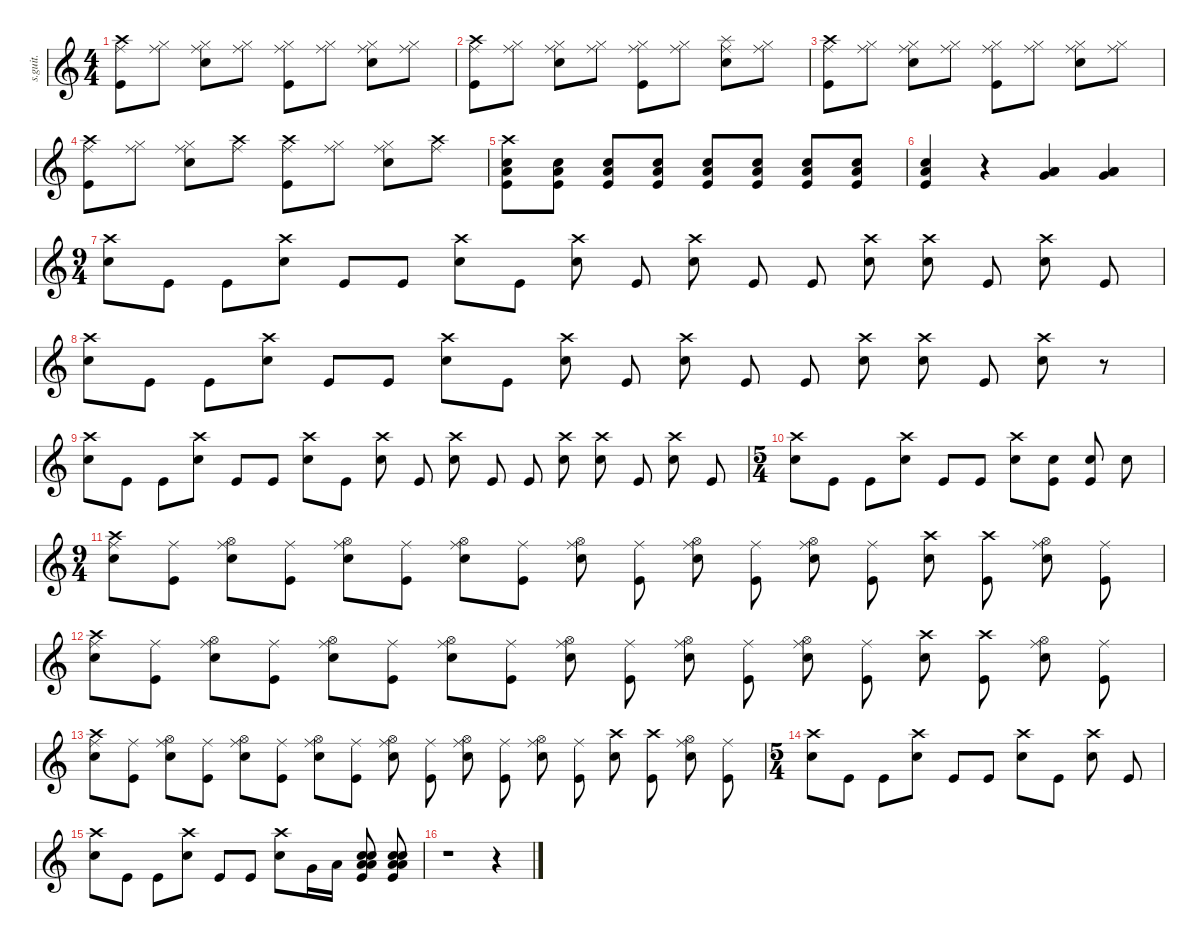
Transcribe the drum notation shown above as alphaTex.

\defaultSystemsLayout 4
\hideDynamics
\bracketExtendMode nobrackets
\track ("A Nameless Ghoul - Drums" "s.guit.") {instrument percussion}
\staff {score}
\articulation defaults
\ts (4 4)
\tempo (130 hide)
\clef g2
\ks c
("Crash high (hit)" "Kick (hit)" "Ride (middle)").8{dy f} ("Hi-Hat (closed)" "Ride (middle)").8 ("Hi-Hat (closed)" "Electric Snare (hit)" "Ride (middle)").8 ("Hi-Hat (closed)" "Ride (middle)").8 ("Hi-Hat (closed)" "Kick (hit)" "Ride (middle)").8 ("Hi-Hat (closed)" "Ride (middle)").8 ("Hi-Hat (closed)" "Electric Snare (hit)" "Ride (middle)").8 ("Hi-Hat (closed)" "Ride (middle)").8 |
("Crash high (hit)" "Kick (hit)" "Ride (middle)").8 ("Hi-Hat (closed)" "Ride (middle)").8 ("Hi-Hat (closed)" "Electric Snare (hit)" "Ride (middle)").8 ("Hi-Hat (closed)" "Ride (middle)").8 ("Hi-Hat (closed)" "Kick (hit)" "Ride (middle)").8 ("Hi-Hat (closed)" "Ride (middle)").8 ("Splash (hit)" "Electric Snare (hit)" "Ride (middle)").8 ("Hi-Hat (closed)" "Ride (middle)").8 |
("Crash high (hit)" "Kick (hit)" "Ride (middle)").8 ("Hi-Hat (closed)" "Ride (middle)").8 ("Hi-Hat (closed)" "Electric Snare (hit)" "Ride (middle)").8 ("Hi-Hat (closed)" "Ride (middle)").8 ("Hi-Hat (closed)" "Kick (hit)" "Ride (middle)").8 ("Hi-Hat (closed)" "Ride (middle)").8 ("Hi-Hat (closed)" "Electric Snare (hit)" "Ride (middle)").8 ("Hi-Hat (closed)" "Ride (middle)").8 |
("Crash high (hit)" "Kick (hit)" "Ride (middle)").8 ("Hi-Hat (closed)" "Ride (middle)").8 ("Hi-Hat (closed)" "Electric Snare (hit)" "Ride (middle)").8 ("Crash high (hit)" "Ride (middle)").8 ("Crash high (hit)" "Kick (hit)" "Ride (middle)").8 ("Hi-Hat (closed)" "Ride (middle)").8 ("Hi-Hat (closed)" "Electric Snare (hit)" "Ride (middle)").8 ("Crash high (hit)" "Ride (middle)").8 |
("Crash high (hit)" "Low Floor Tom (hit)" "Electric Snare (hit)" "Kick (hit)").8 ("Low Floor Tom (hit)" "Electric Snare (hit)" "Kick (hit)").8 ("Low Floor Tom (hit)" "Electric Snare (hit)" "Kick (hit)").8 ("Low Floor Tom (hit)" "Electric Snare (hit)" "Kick (hit)").8 ("Low Floor Tom (hit)" "Electric Snare (hit)" "Kick (hit)").8 ("Low Floor Tom (hit)" "Electric Snare (hit)" "Kick (hit)").8 ("Low Floor Tom (hit)" "Electric Snare (hit)" "Kick (hit)").8 ("Low Floor Tom (hit)" "Electric Snare (hit)" "Kick (hit)").8 |
("Low Floor Tom (hit)" "Electric Snare (hit)" "Kick (hit)").4 r.4 ("Low Tom (hit)" "Very Low Tom (hit)" "Low Floor Tom (hit)").4 ("Low Tom (hit)" "Very Low Tom (hit)" "Low Floor Tom (hit)").4 |
\ts (9 4)
\beaming (8 2 2 2 2)
("Crash high (hit)" "Electric Snare (hit)").8 "Kick (hit)".8 "Kick (hit)".8 ("Crash high (hit)" "Electric Snare (hit)").8 "Kick (hit)".8 "Kick (hit)".8 ("Crash high (hit)" "Electric Snare (hit)").8 "Kick (hit)".8 ("Crash high (hit)" "Electric Snare (hit)").8 "Kick (hit)".8 ("Crash high (hit)" "Electric Snare (hit)").8 "Kick (hit)".8 "Kick (hit)".8 ("Crash high (hit)" "Electric Snare (hit)").8 ("Crash high (hit)" "Electric Snare (hit)").8 "Kick (hit)".8 ("Crash high (hit)" "Electric Snare (hit)").8 "Kick (hit)".8 |
("Crash high (hit)" "Electric Snare (hit)").8 "Kick (hit)".8 "Kick (hit)".8 ("Crash high (hit)" "Electric Snare (hit)").8 "Kick (hit)".8 "Kick (hit)".8 ("Crash high (hit)" "Electric Snare (hit)").8 "Kick (hit)".8 ("Crash high (hit)" "Electric Snare (hit)").8 "Kick (hit)".8 ("Crash high (hit)" "Electric Snare (hit)").8 "Kick (hit)".8 "Kick (hit)".8 ("Crash high (hit)" "Electric Snare (hit)").8 ("Crash high (hit)" "Electric Snare (hit)").8 "Kick (hit)".8 ("Crash high (hit)" "Electric Snare (hit)").8 r.8 |
("Crash high (hit)" "Electric Snare (hit)").8 "Kick (hit)".8 "Kick (hit)".8 ("Crash high (hit)" "Electric Snare (hit)").8 "Kick (hit)".8 "Kick (hit)".8 ("Crash high (hit)" "Electric Snare (hit)").8 "Kick (hit)".8 ("Crash high (hit)" "Electric Snare (hit)").8 "Kick (hit)".8 ("Crash high (hit)" "Electric Snare (hit)").8 "Kick (hit)".8 "Kick (hit)".8 ("Crash high (hit)" "Electric Snare (hit)").8 ("Crash high (hit)" "Electric Snare (hit)").8 "Kick (hit)".8 ("Crash high (hit)" "Electric Snare (hit)").8 "Kick (hit)".8 |
\ts (5 4)
\beaming (8 2 2 2 2)
("Crash high (hit)" "Electric Snare (hit)").8 "Kick (hit)".8 "Kick (hit)".8 ("Crash high (hit)" "Electric Snare (hit)").8 "Kick (hit)".8 "Kick (hit)".8 ("Crash high (hit)" "Electric Snare (hit)").8 ("Kick (hit)" "Snare (hit) 2").8 ("Kick (hit)" "Snare (hit) 2").8 "Snare (hit) 2".8 |
\ts (9 4)
\beaming (8 2 2 2 2)
("Crash high (hit)" "Electric Snare (hit)" "Ride (middle)").8 ("Kick (hit)" "Ride (middle)").8 ("Hi-Hat (open)" "Electric Snare (hit)" "Ride (middle)").8 ("Kick (hit)" "Ride (middle)").8 ("Hi-Hat (open)" "Electric Snare (hit)" "Ride (middle)").8 ("Kick (hit)" "Ride (middle)").8 ("Hi-Hat (open)" "Electric Snare (hit)" "Ride (middle)").8 ("Kick (hit)" "Ride (middle)").8 ("Hi-Hat (open)" "Electric Snare (hit)" "Ride (middle)").8 ("Kick (hit)" "Ride (middle)").8 ("Hi-Hat (open)" "Electric Snare (hit)" "Ride (middle)").8 ("Kick (hit)" "Ride (middle)").8 ("Hi-Hat (open)" "Electric Snare (hit)" "Ride (middle)").8 ("Kick (hit)" "Ride (middle)").8 ("Crash high (hit)" "Electric Snare (hit)").8 ("Crash high (hit)" "Kick (hit)").8 ("Hi-Hat (open)" "Electric Snare (hit)" "Ride (middle)").8 ("Kick (hit)" "Ride (middle)").8 |
("Crash high (hit)" "Electric Snare (hit)" "Ride (middle)").8 ("Kick (hit)" "Ride (middle)").8 ("Hi-Hat (open)" "Electric Snare (hit)" "Ride (middle)").8 ("Kick (hit)" "Ride (middle)").8 ("Hi-Hat (open)" "Electric Snare (hit)" "Ride (middle)").8 ("Kick (hit)" "Ride (middle)").8 ("Hi-Hat (open)" "Electric Snare (hit)" "Ride (middle)").8 ("Kick (hit)" "Ride (middle)").8 ("Hi-Hat (open)" "Electric Snare (hit)" "Ride (middle)").8 ("Kick (hit)" "Ride (middle)").8 ("Hi-Hat (open)" "Electric Snare (hit)" "Ride (middle)").8 ("Kick (hit)" "Ride (middle)").8 ("Hi-Hat (open)" "Electric Snare (hit)" "Ride (middle)").8 ("Kick (hit)" "Ride (middle)").8 ("Crash high (hit)" "Electric Snare (hit)").8 ("Crash high (hit)" "Kick (hit)").8 ("Hi-Hat (open)" "Electric Snare (hit)" "Ride (middle)").8 ("Kick (hit)" "Ride (middle)").8 |
("Crash high (hit)" "Electric Snare (hit)" "Ride (middle)").8 ("Kick (hit)" "Ride (middle)").8 ("Hi-Hat (open)" "Electric Snare (hit)" "Ride (middle)").8 ("Kick (hit)" "Ride (middle)").8 ("Hi-Hat (open)" "Electric Snare (hit)" "Ride (middle)").8 ("Kick (hit)" "Ride (middle)").8 ("Hi-Hat (open)" "Electric Snare (hit)" "Ride (middle)").8 ("Kick (hit)" "Ride (middle)").8 ("Hi-Hat (open)" "Electric Snare (hit)" "Ride (middle)").8 ("Kick (hit)" "Ride (middle)").8 ("Hi-Hat (open)" "Electric Snare (hit)" "Ride (middle)").8 ("Kick (hit)" "Ride (middle)").8 ("Hi-Hat (open)" "Electric Snare (hit)" "Ride (middle)").8 ("Kick (hit)" "Ride (middle)").8 ("Crash high (hit)" "Electric Snare (hit)").8 ("Crash high (hit)" "Kick (hit)").8 ("Hi-Hat (open)" "Electric Snare (hit)" "Ride (middle)").8 ("Kick (hit)" "Ride (middle)").8 |
\ts (5 4)
\beaming (8 2 2 2 2)
("Crash high (hit)" "Electric Snare (hit)").8 "Kick (hit)".8 "Kick (hit)".8 ("Crash high (hit)" "Electric Snare (hit)").8 "Kick (hit)".8 "Kick (hit)".8 ("Crash high (hit)" "Electric Snare (hit)").8 "Kick (hit)".8 ("Crash high (hit)" "Electric Snare (hit)").8 "Kick (hit)".8 |
("Crash high (hit)" "Electric Snare (hit)").8 "Kick (hit)".8 "Kick (hit)".8 ("Crash high (hit)" "Electric Snare (hit)").8 "Kick (hit)".8 "Kick (hit)".8 ("Crash high (hit)" "Electric Snare (hit)").8 "Very Low Tom (hit)".16 "Low Floor Tom (hit)".16 ("Snare (hit) 2" "Snare (hit) 2" "Low Floor Tom (hit)" "Low Tom (hit)" "Kick (hit)").8 ("Snare (hit) 2" "Snare (hit) 2" "Low Floor Tom (hit)" "Low Tom (hit)" "Kick (hit)").8 |
r.1 r.4
